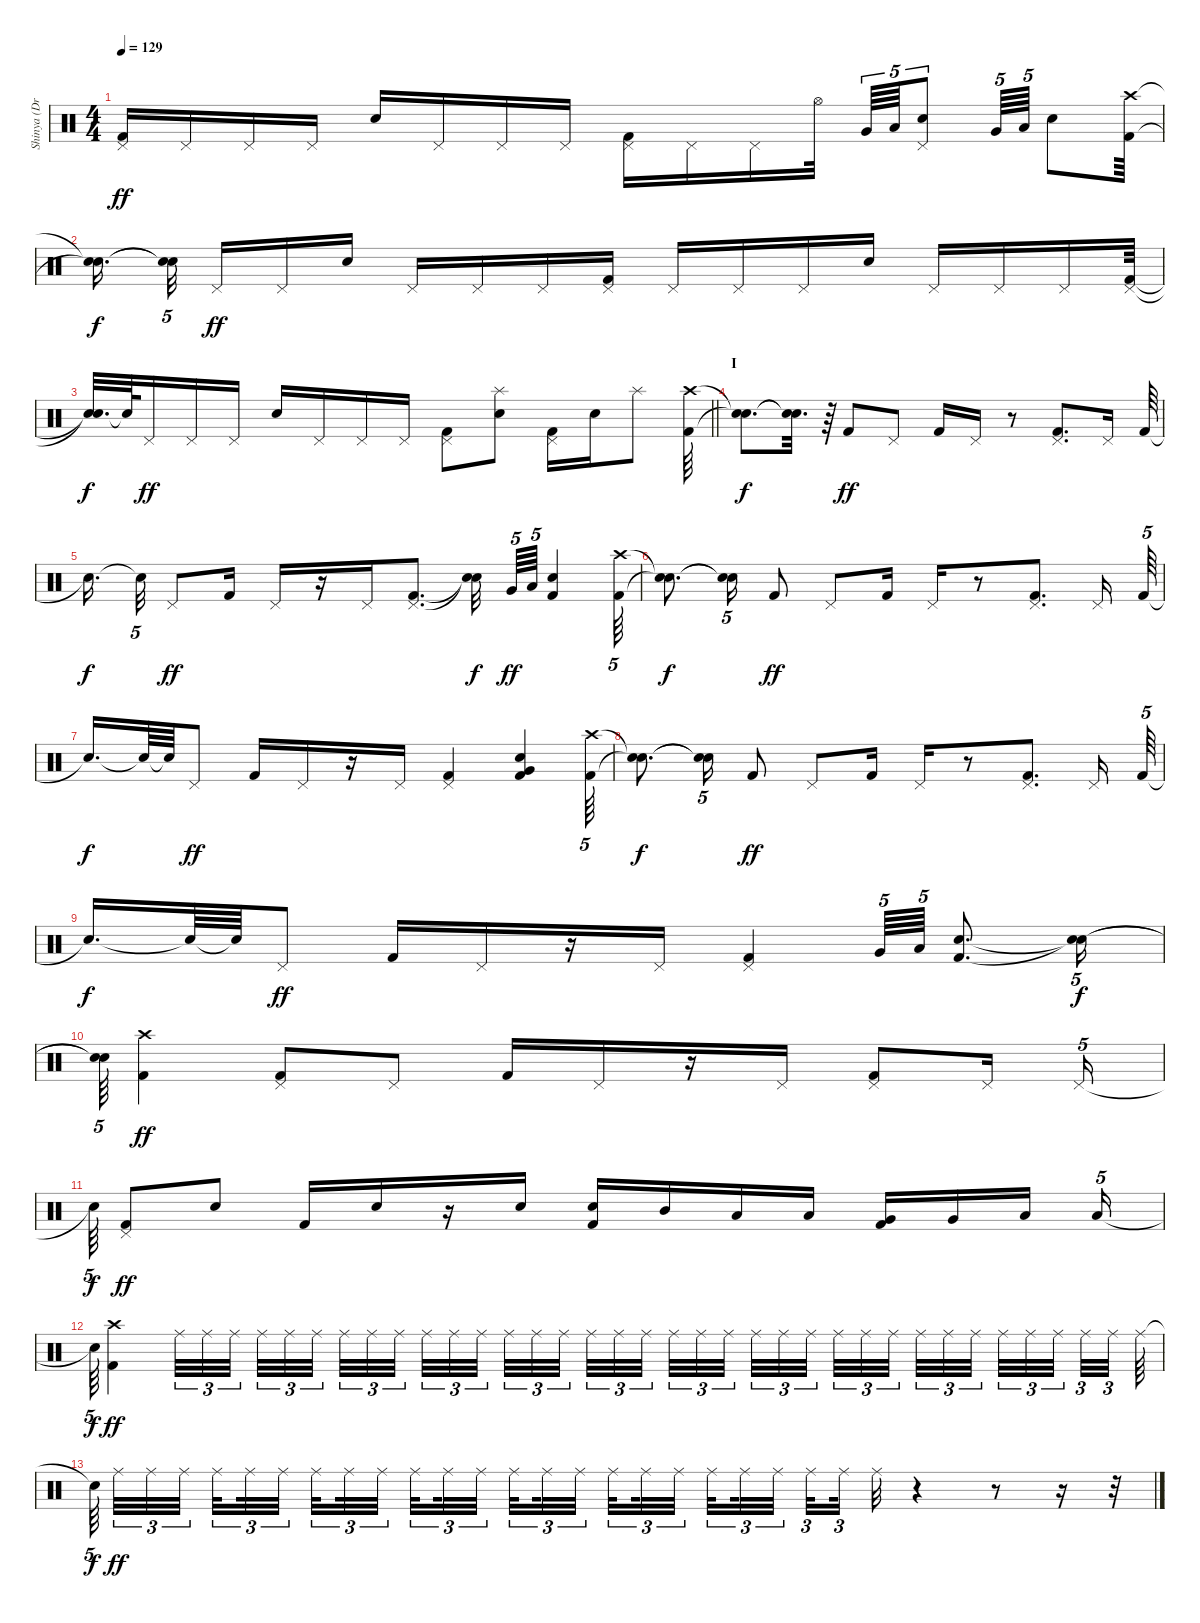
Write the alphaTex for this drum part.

\track ("Shinya (Drums)" "Shinya (Dr") {instrument percussion}
\staff {score}
\articulation defaults
\ts (4 4)
\tempo 129
\clef neutral
\ks c
("Kick (hit) 2" "Pedal Hi-Hat (hit)").16{dy ff} "Pedal Hi-Hat (hit)".16 "Pedal Hi-Hat (hit)".16 "Pedal Hi-Hat (hit)".16 "Electric Snare (hit)".16 "Pedal Hi-Hat (hit)".16 "Pedal Hi-Hat (hit)".16 "Pedal Hi-Hat (hit)".16 ("Pedal Hi-Hat (hit)" "Kick (hit) 2").16 "Pedal Hi-Hat (hit)".16 "Pedal Hi-Hat (hit)".16 "Hi-Hat (open)".32{beam splitsecondary} "Very Low Tom (hit)".64{tu (5 4)} "Low Floor Tom (hit)".64{tu (5 4)} ("Pedal Hi-Hat (hit)" "Electric Snare (hit)").8{tu (5 4)} "Very Low Tom (hit)".64{tu (5 4)} "Low Floor Tom (hit)".64{tu (5 4)} "Electric Snare (hit)".8 ("Crash high (hit)" "Kick (hit) 2").64 |
("Snare (hit)"{t} "Snare (hit)"{t}).16{d dy f beam splitsecondary} ("Snare (hit)"{t} "Snare (hit)"{t}).32{tu (5 4) beam splitsecondary} "Pedal Hi-Hat (hit)".16{dy ff} "Pedal Hi-Hat (hit)".16 "Electric Snare (hit)".16 "Pedal Hi-Hat (hit)".16 "Pedal Hi-Hat (hit)".16 "Pedal Hi-Hat (hit)".16 ("Pedal Hi-Hat (hit)" "Kick (hit) 2").16 "Pedal Hi-Hat (hit)".16 "Pedal Hi-Hat (hit)".16 "Pedal Hi-Hat (hit)".16 "Electric Snare (hit)".16 "Pedal Hi-Hat (hit)".16 "Pedal Hi-Hat (hit)".16 "Pedal Hi-Hat (hit)".16 ("Kick (hit) 2" "Pedal Hi-Hat (hit)").64 |
\barLineRight lightlight
("Snare (hit)"{t} "Snare (hit)"{t}).32{d dy f} "Snare (hit)"{t}.64 "Pedal Hi-Hat (hit)".16{dy ff} "Pedal Hi-Hat (hit)".16 "Pedal Hi-Hat (hit)".16 "Electric Snare (hit)".16 "Pedal Hi-Hat (hit)".16 "Pedal Hi-Hat (hit)".16 "Pedal Hi-Hat (hit)".16 ("Pedal Hi-Hat (hit)" "Kick (hit) 2").8 ("Electric Snare (hit)" "Splash (hit)").8 ("Pedal Hi-Hat (hit)" "Kick (hit) 2").16 "Electric Snare (hit)".16 "Splash (hit)".8 ("Crash high (hit)" "Kick (hit) 2").64 |
\section ("" "I")
("Snare (hit)"{t} "Snare (hit)"{t}).8{d dy f} ("Snare (hit)"{t} "Snare (hit)"{t}).32{d} r.64 "Kick (hit) 2".8{dy ff} "Pedal Hi-Hat (hit)".8 "Kick (hit) 2".16 "Pedal Hi-Hat (hit)".16 r.8 ("Pedal Hi-Hat (hit)" "Kick (hit) 2").8{d} "Pedal Hi-Hat (hit)".16 "Kick (hit) 2".64 |
"Snare (hit)"{t}.16{d dy f beam splitsecondary} "Snare (hit)"{t}.32{tu (5 4)} "Pedal Hi-Hat (hit)".8{dy ff} "Kick (hit) 2".16 "Pedal Hi-Hat (hit)".16 r.16 "Pedal Hi-Hat (hit)".16 ("Kick (hit) 2" "Pedal Hi-Hat (hit)").8{d} ("Snare (hit)"{t} "Snare (hit)"{t}).32{dy f beam splitsecondary} "Very Low Tom (hit)".64{tu (5 4) dy ff} "Low Floor Tom (hit)".64{tu (5 4)} ("Kick (hit) 2" "Electric Snare (hit)").4 ("Crash high (hit)" "Kick (hit) 2").64{tu (5 4)} |
("Snare (hit)"{t} "Snare (hit)"{t}).8{d dy f} ("Snare (hit)"{t} "Snare (hit)"{t}).16{tu (5 4)} "Kick (hit) 2".8{dy ff} "Pedal Hi-Hat (hit)".8 "Kick (hit) 2".16 "Pedal Hi-Hat (hit)".16 r.8 ("Pedal Hi-Hat (hit)" "Kick (hit) 2").8{d} "Pedal Hi-Hat (hit)".16 "Kick (hit) 2".64{tu (5 4)} |
"Snare (hit)"{t}.16{d dy f} "Snare (hit)"{t}.64 "Snare (hit)"{t}.64 "Pedal Hi-Hat (hit)".8{dy ff} "Kick (hit) 2".16 "Pedal Hi-Hat (hit)".16 r.16 "Pedal Hi-Hat (hit)".16 ("Pedal Hi-Hat (hit)" "Kick (hit) 2").4 ("Kick (hit) 2" "Electric Snare (hit)" "Very Low Tom (hit)").4 ("Crash high (hit)" "Kick (hit) 2").64{tu (5 4)} |
("Snare (hit)"{t} "Snare (hit)"{t}).8{d dy f} ("Snare (hit)"{t} "Snare (hit)"{t}).16{tu (5 4)} "Kick (hit) 2".8{dy ff} "Pedal Hi-Hat (hit)".8 "Kick (hit) 2".16 "Pedal Hi-Hat (hit)".16 r.8 ("Pedal Hi-Hat (hit)" "Kick (hit) 2").8{d} "Pedal Hi-Hat (hit)".16 "Kick (hit) 2".64{tu (5 4)} |
"Snare (hit)"{t}.16{d dy f} "Snare (hit)"{t}.64 "Snare (hit)"{t}.64 "Pedal Hi-Hat (hit)".8{dy ff} "Kick (hit) 2".16 "Pedal Hi-Hat (hit)".16 r.16 "Pedal Hi-Hat (hit)".16 ("Kick (hit) 2" "Pedal Hi-Hat (hit)").4 "Very Low Tom (hit)".64{tu (5 4)} "Low Floor Tom (hit)".64{tu (5 4)} ("Kick (hit) 2" "Electric Snare (hit)").8{d} ("Snare (hit)"{t} "Snare (hit)"{t}).16{tu (5 4) dy f} |
("Snare (hit)"{t} "Snare (hit)"{t}).64{tu (5 4)} ("Crash high (hit)" "Kick (hit) 2").4{dy ff} ("Kick (hit) 2" "Pedal Hi-Hat (hit)").8 "Pedal Hi-Hat (hit)".8 "Kick (hit) 2".16 "Pedal Hi-Hat (hit)".16 r.16 "Pedal Hi-Hat (hit)".16 ("Kick (hit) 2" "Pedal Hi-Hat (hit)").8 "Pedal Hi-Hat (hit)".16 "Pedal Hi-Hat (hit)".16{tu (5 4)} |
"Snare (hit)"{t}.64{tu (5 4) dy f} ("Pedal Hi-Hat (hit)" "Kick (hit) 2").8{dy ff} "Electric Snare (hit)".8 "Kick (hit) 2".16 "Electric Snare (hit)".16 r.16 "Electric Snare (hit)".16 ("Electric Snare (hit)" "Kick (hit) 2").16 "Mid Tom (hit)".16 "Low Tom (hit)".16 "Low Tom (hit)".16 ("Very Low Tom (hit)" "Kick (hit) 2").16 "Very Low Tom (hit)".16 "Low Floor Tom (hit)".16{beam splitsecondary} "Low Floor Tom (hit)".16{tu (5 4)} |
"Snare (hit)"{t}.64{tu (5 4) dy f} ("Kick (hit) 2" "Crash high (hit)").4{dy ff} "Ride (middle)".32{tu (3 2)} "Ride (middle)".32{tu (3 2)} "Ride (middle)".32{tu (3 2) beam splitsecondary} "Ride (middle)".32{tu (3 2)} "Ride (middle)".32{tu (3 2)} "Ride (middle)".32{tu (3 2) beam splitsecondary} "Ride (middle)".32{tu (3 2)} "Ride (middle)".32{tu (3 2)} "Ride (middle)".32{tu (3 2) beam splitsecondary} "Ride (middle)".32{tu (3 2)} "Ride (middle)".32{tu (3 2)} "Ride (middle)".32{tu (3 2)} "Ride (middle)".32{tu (3 2)} "Ride (middle)".32{tu (3 2)} "Ride (middle)".32{tu (3 2) beam splitsecondary} "Ride (middle)".32{tu (3 2)} "Ride (middle)".32{tu (3 2)} "Ride (middle)".32{tu (3 2) beam splitsecondary} "Ride (middle)".32{tu (3 2)} "Ride (middle)".32{tu (3 2)} "Ride (middle)".32{tu (3 2) beam splitsecondary} "Ride (middle)".32{tu (3 2)} "Ride (middle)".32{tu (3 2)} "Ride (middle)".32{tu (3 2)} "Ride (middle)".32{tu (3 2)} "Ride (middle)".32{tu (3 2)} "Ride (middle)".32{tu (3 2) beam splitsecondary} "Ride (middle)".32{tu (3 2)} "Ride (middle)".32{tu (3 2)} "Ride (middle)".32{tu (3 2) beam splitsecondary} "Ride (middle)".32{tu (3 2)} "Ride (middle)".32{tu (3 2)} "Ride (middle)".32{tu (3 2) beam splitsecondary} "Ride (middle)".32{tu (3 2)} "Ride (middle)".32{tu (3 2) beam splitsecondary} "Ride (middle)".64 |
"Snare (hit)"{t}.64{tu (5 4) dy f} "Ride (middle)".32{tu (3 2) dy ff} "Ride (middle)".32{tu (3 2)} "Ride (middle)".32{tu (3 2)} "Ride (middle)".32{tu (3 2) beam splitsecondary} "Ride (middle)".32{tu (3 2)} "Ride (middle)".32{tu (3 2)} "Ride (middle)".32{tu (3 2) beam splitsecondary} "Ride (middle)".32{tu (3 2)} "Ride (middle)".32{tu (3 2)} "Ride (middle)".32{tu (3 2) beam splitsecondary} "Ride (middle)".32{tu (3 2)} "Ride (middle)".32{tu (3 2)} "Ride (middle)".32{tu (3 2) beam splitsecondary} "Ride (middle)".32{tu (3 2)} "Ride (middle)".32{tu (3 2)} "Ride (middle)".32{tu (3 2) beam splitsecondary} "Ride (middle)".32{tu (3 2)} "Ride (middle)".32{tu (3 2)} "Ride (middle)".32{tu (3 2) beam splitsecondary} "Ride (middle)".32{tu (3 2)} "Ride (middle)".32{tu (3 2)} "Ride (middle)".32{tu (3 2) beam splitsecondary} "Ride (middle)".32{tu (3 2)} "Ride (middle)".32 r.4 r.8 r.16 r.32
